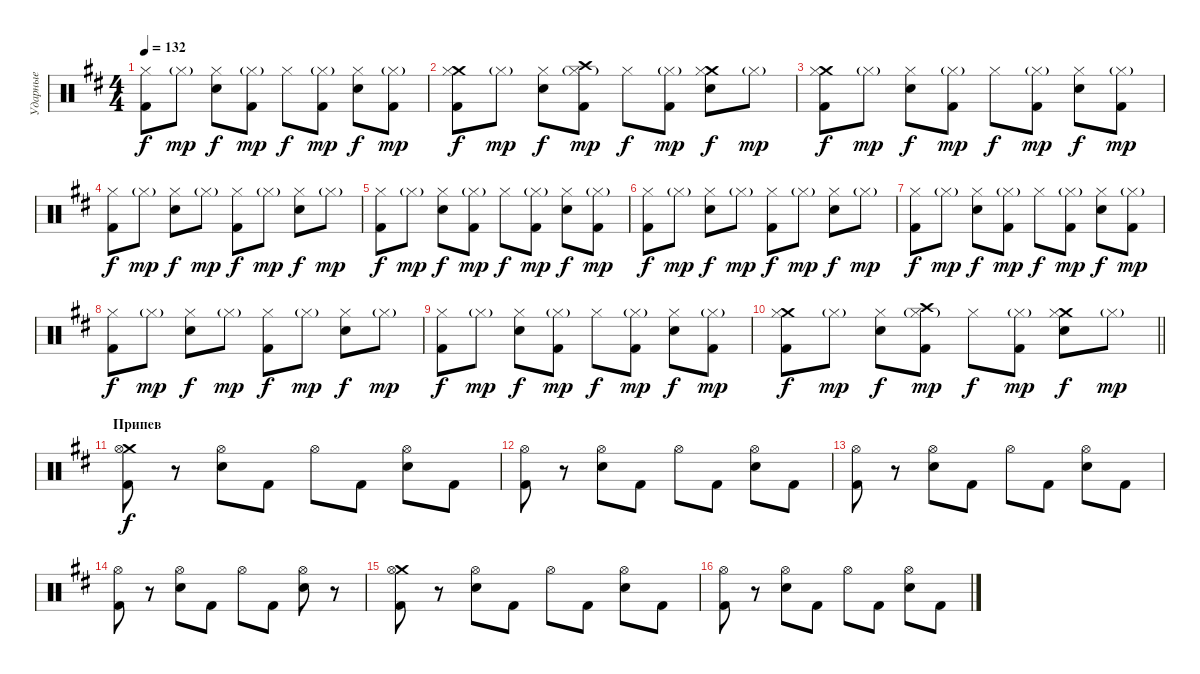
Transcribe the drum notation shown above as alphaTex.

\track ("Ударные" "Ударные") {instrument percussion}
\staff {score}
\articulation defaults
\ts (4 4)
\tempo 132
\clef neutral
\ks bminor
("Kick (hit) 2" "Hi-Hat (closed)").8{dy f} "Hi-Hat (closed)"{g}.8{dy mp} ("Electric Snare (hit)" "Hi-Hat (closed)").8{dy f} ("Kick (hit) 2" "Hi-Hat (closed)"{g}).8{dy mp} "Hi-Hat (closed)".8{dy f} ("Kick (hit) 2" "Hi-Hat (closed)"{g}).8{dy mp} ("Electric Snare (hit)" "Hi-Hat (closed)").8{dy f} ("Kick (hit) 2" "Hi-Hat (closed)"{g}).8{dy mp} |
("Crash medium (hit)" "Kick (hit) 2" "Hi-Hat (closed)").8{dy f} "Hi-Hat (closed)"{g}.8{dy mp} ("Electric Snare (hit)" "Hi-Hat (closed)").8{dy f} ("Crash high (hit)" "Kick (hit) 2" "Hi-Hat (closed)"{g}).8{dy mp} "Hi-Hat (closed)".8{dy f} ("Kick (hit) 2" "Hi-Hat (closed)"{g}).8{dy mp} ("Crash medium (hit)" "Electric Snare (hit)" "Hi-Hat (closed)").8{dy f} "Hi-Hat (closed)"{g}.8{dy mp} |
("Crash medium (hit)" "Kick (hit) 2" "Hi-Hat (closed)").8{dy f} "Hi-Hat (closed)"{g}.8{dy mp} ("Electric Snare (hit)" "Hi-Hat (closed)").8{dy f} ("Kick (hit) 2" "Hi-Hat (closed)"{g}).8{dy mp} "Hi-Hat (closed)".8{dy f} ("Kick (hit) 2" "Hi-Hat (closed)"{g}).8{dy mp} ("Electric Snare (hit)" "Hi-Hat (closed)").8{dy f} ("Kick (hit) 2" "Hi-Hat (closed)"{g}).8{dy mp} |
("Kick (hit) 2" "Hi-Hat (closed)").8{dy f} "Hi-Hat (closed)"{g}.8{dy mp} ("Electric Snare (hit)" "Hi-Hat (closed)").8{dy f} "Hi-Hat (closed)"{g}.8{dy mp} ("Kick (hit) 2" "Hi-Hat (closed)").8{dy f} "Hi-Hat (closed)"{g}.8{dy mp} ("Electric Snare (hit)" "Hi-Hat (closed)").8{dy f} "Hi-Hat (closed)"{g}.8{dy mp} |
("Kick (hit) 2" "Hi-Hat (closed)").8{dy f} "Hi-Hat (closed)"{g}.8{dy mp} ("Electric Snare (hit)" "Hi-Hat (closed)").8{dy f} ("Kick (hit) 2" "Hi-Hat (closed)"{g}).8{dy mp} "Hi-Hat (closed)".8{dy f} ("Kick (hit) 2" "Hi-Hat (closed)"{g}).8{dy mp} ("Electric Snare (hit)" "Hi-Hat (closed)").8{dy f} ("Kick (hit) 2" "Hi-Hat (closed)"{g}).8{dy mp} |
("Kick (hit) 2" "Hi-Hat (closed)").8{dy f} "Hi-Hat (closed)"{g}.8{dy mp} ("Electric Snare (hit)" "Hi-Hat (closed)").8{dy f} "Hi-Hat (closed)"{g}.8{dy mp} ("Kick (hit) 2" "Hi-Hat (closed)").8{dy f} "Hi-Hat (closed)"{g}.8{dy mp} ("Electric Snare (hit)" "Hi-Hat (closed)").8{dy f} "Hi-Hat (closed)"{g}.8{dy mp} |
("Kick (hit) 2" "Hi-Hat (closed)").8{dy f} "Hi-Hat (closed)"{g}.8{dy mp} ("Electric Snare (hit)" "Hi-Hat (closed)").8{dy f} ("Kick (hit) 2" "Hi-Hat (closed)"{g}).8{dy mp} "Hi-Hat (closed)".8{dy f} ("Kick (hit) 2" "Hi-Hat (closed)"{g}).8{dy mp} ("Electric Snare (hit)" "Hi-Hat (closed)").8{dy f} ("Kick (hit) 2" "Hi-Hat (closed)"{g}).8{dy mp} |
("Kick (hit) 2" "Hi-Hat (closed)").8{dy f} "Hi-Hat (closed)"{g}.8{dy mp} ("Electric Snare (hit)" "Hi-Hat (closed)").8{dy f} "Hi-Hat (closed)"{g}.8{dy mp} ("Kick (hit) 2" "Hi-Hat (closed)").8{dy f} "Hi-Hat (closed)"{g}.8{dy mp} ("Electric Snare (hit)" "Hi-Hat (closed)").8{dy f} "Hi-Hat (closed)"{g}.8{dy mp} |
("Kick (hit) 2" "Hi-Hat (closed)").8{dy f} "Hi-Hat (closed)"{g}.8{dy mp} ("Electric Snare (hit)" "Hi-Hat (closed)").8{dy f} ("Kick (hit) 2" "Hi-Hat (closed)"{g}).8{dy mp} "Hi-Hat (closed)".8{dy f} ("Kick (hit) 2" "Hi-Hat (closed)"{g}).8{dy mp} ("Electric Snare (hit)" "Hi-Hat (closed)").8{dy f} ("Kick (hit) 2" "Hi-Hat (closed)"{g}).8{dy mp} |
\barLineRight lightlight
("Crash medium (hit)" "Kick (hit) 2" "Hi-Hat (closed)").8{dy f} "Hi-Hat (closed)"{g}.8{dy mp} ("Electric Snare (hit)" "Hi-Hat (closed)").8{dy f} ("Crash high (hit)" "Kick (hit) 2" "Hi-Hat (closed)"{g}).8{dy mp} "Hi-Hat (closed)".8{dy f} ("Kick (hit) 2" "Hi-Hat (closed)"{g}).8{dy mp} ("Crash medium (hit)" "Electric Snare (hit)" "Hi-Hat (closed)").8{dy f} "Hi-Hat (closed)"{g}.8{dy mp} |
\section ("" "Припев")
("Crash medium (hit)" "Kick (hit) 2" "Hi-Hat (open)").8{dy f} r.8 ("Electric Snare (hit)" "Hi-Hat (open)").8 "Kick (hit) 2".8 "Hi-Hat (open)".8 "Kick (hit) 2".8 ("Electric Snare (hit)" "Hi-Hat (open)").8 "Kick (hit) 2".8 |
("Kick (hit) 2" "Hi-Hat (open)").8 r.8 ("Electric Snare (hit)" "Hi-Hat (open)").8 "Kick (hit) 2".8 "Hi-Hat (open)".8 "Kick (hit) 2".8 ("Electric Snare (hit)" "Hi-Hat (open)").8 "Kick (hit) 2".8 |
("Kick (hit) 2" "Hi-Hat (open)").8 r.8 ("Electric Snare (hit)" "Hi-Hat (open)").8 "Kick (hit) 2".8 "Hi-Hat (open)".8 "Kick (hit) 2".8 ("Electric Snare (hit)" "Hi-Hat (open)").8 "Kick (hit) 2".8 |
("Kick (hit) 2" "Hi-Hat (open)").8 r.8 ("Electric Snare (hit)" "Hi-Hat (open)").8 "Kick (hit) 2".8 "Hi-Hat (open)".8 "Kick (hit) 2".8 ("Electric Snare (hit)" "Hi-Hat (open)").8 r.8 |
("Crash medium (hit)" "Kick (hit) 2" "Hi-Hat (open)").8 r.8 ("Electric Snare (hit)" "Hi-Hat (open)").8 "Kick (hit) 2".8 "Hi-Hat (open)".8 "Kick (hit) 2".8 ("Electric Snare (hit)" "Hi-Hat (open)").8 "Kick (hit) 2".8 |
("Kick (hit) 2" "Hi-Hat (open)").8 r.8 ("Electric Snare (hit)" "Hi-Hat (open)").8 "Kick (hit) 2".8 "Hi-Hat (open)".8 "Kick (hit) 2".8 ("Electric Snare (hit)" "Hi-Hat (open)").8 "Kick (hit) 2".8
